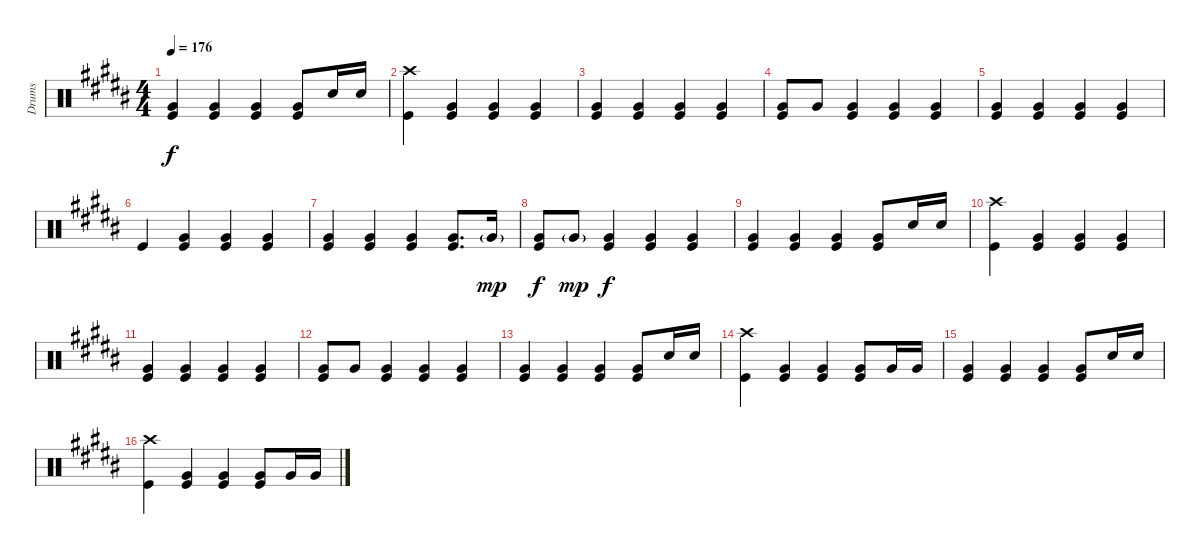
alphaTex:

\track ("Drums" "Drums") {instrument percussion}
\staff {score}
\articulation defaults
\ts (4 4)
\tempo 176
\clef neutral
\ks b
("Very Low Tom (hit)" "Kick (hit)").4{dy f} ("Very Low Tom (hit)" "Kick (hit)").4 ("Very Low Tom (hit)" "Kick (hit)").4 ("Very Low Tom (hit)" "Kick (hit)").8 "Snare (hit) 2".16 "Snare (hit) 2".16 |
("Crash high (hit)" "Kick (hit)").4 ("Kick (hit)" "Very Low Tom (hit)").4 ("Kick (hit)" "Very Low Tom (hit)").4 ("Kick (hit)" "Very Low Tom (hit)").4 |
("Very Low Tom (hit)" "Kick (hit)").4 ("Very Low Tom (hit)" "Kick (hit)").4 ("Very Low Tom (hit)" "Kick (hit)").4 ("Very Low Tom (hit)" "Kick (hit)").4 |
("Very Low Tom (hit)" "Kick (hit)").8 "Very Low Tom (hit)".8 ("Very Low Tom (hit)" "Kick (hit)").4 ("Very Low Tom (hit)" "Kick (hit)").4 ("Very Low Tom (hit)" "Kick (hit)").4 |
("Very Low Tom (hit)" "Kick (hit)").4 ("Very Low Tom (hit)" "Kick (hit)").4 ("Very Low Tom (hit)" "Kick (hit)").4 ("Very Low Tom (hit)" "Kick (hit)").4 |
"Kick (hit)".4 ("Very Low Tom (hit)" "Kick (hit)").4 ("Very Low Tom (hit)" "Kick (hit)").4 ("Very Low Tom (hit)" "Kick (hit)").4 |
("Very Low Tom (hit)" "Kick (hit)").4 ("Very Low Tom (hit)" "Kick (hit)").4 ("Very Low Tom (hit)" "Kick (hit)").4 ("Very Low Tom (hit)" "Kick (hit)").8{d} "Very Low Tom (hit)"{g}.16{dy mp} |
("Very Low Tom (hit)" "Kick (hit)").8{dy f} "Very Low Tom (hit)"{g}.8{dy mp} ("Very Low Tom (hit)" "Kick (hit)").4{dy f} ("Very Low Tom (hit)" "Kick (hit)").4 ("Very Low Tom (hit)" "Kick (hit)").4 |
("Very Low Tom (hit)" "Kick (hit)").4 ("Very Low Tom (hit)" "Kick (hit)").4 ("Very Low Tom (hit)" "Kick (hit)").4 ("Very Low Tom (hit)" "Kick (hit)").8 "Snare (hit) 2".16 "Snare (hit) 2".16 |
("Crash high (hit)" "Kick (hit)").4 ("Kick (hit)" "Very Low Tom (hit)").4 ("Kick (hit)" "Very Low Tom (hit)").4 ("Kick (hit)" "Very Low Tom (hit)").4 |
("Very Low Tom (hit)" "Kick (hit)").4 ("Very Low Tom (hit)" "Kick (hit)").4 ("Very Low Tom (hit)" "Kick (hit)").4 ("Very Low Tom (hit)" "Kick (hit)").4 |
("Very Low Tom (hit)" "Kick (hit)").8 "Very Low Tom (hit)".8 ("Very Low Tom (hit)" "Kick (hit)").4 ("Very Low Tom (hit)" "Kick (hit)").4 ("Very Low Tom (hit)" "Kick (hit)").4 |
("Very Low Tom (hit)" "Kick (hit)").4 ("Very Low Tom (hit)" "Kick (hit)").4 ("Very Low Tom (hit)" "Kick (hit)").4 ("Very Low Tom (hit)" "Kick (hit)").8 "Snare (hit) 2".16 "Snare (hit) 2".16 |
("Crash high (hit)" "Kick (hit)").4 ("Kick (hit)" "Very Low Tom (hit)").4 ("Kick (hit)" "Very Low Tom (hit)").4 ("Kick (hit)" "Very Low Tom (hit)").8 "Very Low Tom (hit)".16 "Very Low Tom (hit)".16 |
("Very Low Tom (hit)" "Kick (hit)").4 ("Very Low Tom (hit)" "Kick (hit)").4 ("Very Low Tom (hit)" "Kick (hit)").4 ("Very Low Tom (hit)" "Kick (hit)").8 "Snare (hit) 2".16 "Snare (hit) 2".16 |
("Crash high (hit)" "Kick (hit)").4 ("Kick (hit)" "Very Low Tom (hit)").4 ("Kick (hit)" "Very Low Tom (hit)").4 ("Kick (hit)" "Very Low Tom (hit)").8 "Very Low Tom (hit)".16 "Very Low Tom (hit)".16
